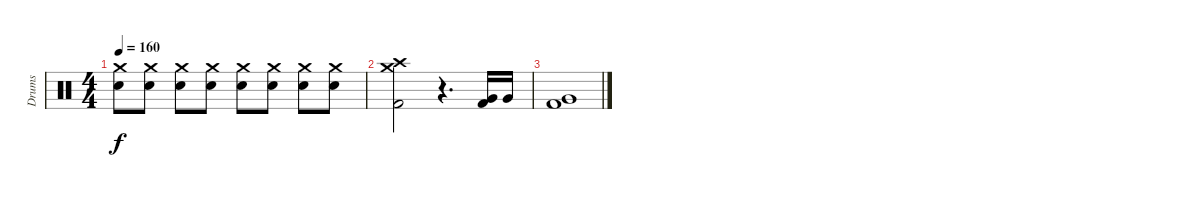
\track ("Drums" "Drums") {instrument percussion}
\staff {score}
\articulation defaults
\ts (4 4)
\tempo 160
\clef neutral
\ks c
("Crash medium (hit)" "Electric Snare (hit)").8{dy f} ("Crash medium (hit)" "Electric Snare (hit)").8 ("Crash medium (hit)" "Electric Snare (hit)").8 ("Crash medium (hit)" "Electric Snare (hit)").8 ("Crash medium (hit)" "Electric Snare (hit)").8 ("Crash medium (hit)" "Electric Snare (hit)").8 ("Crash medium (hit)" "Electric Snare (hit)").8 ("Crash medium (hit)" "Electric Snare (hit)").8 |
("Crash high (hit)" "Crash medium (hit)" "Kick (hit) 2").2 r.4{d} ("Very Low Tom (hit)" "Kick (hit) 2").16 "Very Low Tom (hit)".16 |
("Very Low Tom (hit)" "Kick (hit) 2").1
